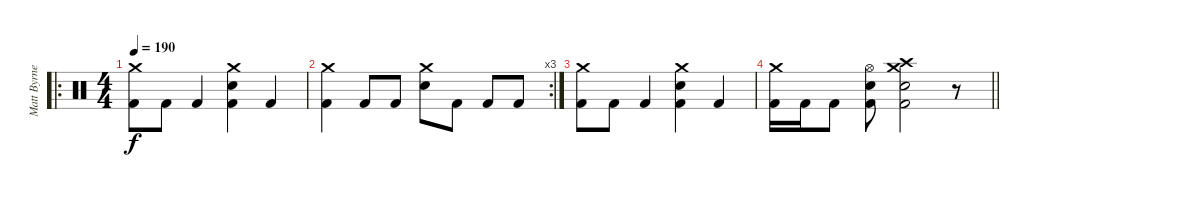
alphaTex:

\track ("Matt Byrne" "Matt Byrne") {instrument percussion}
\staff {score}
\articulation defaults
\ro
\ts (4 4)
\tempo 190
\clef neutral
\ks c
("Crash medium (hit)" "Kick (hit) 2").8{dy f} "Kick (hit) 2".8 "Kick (hit) 2".4 ("Crash medium (hit)" "Snare (hit) 2" "Kick (hit) 2").4 "Kick (hit) 2".4 |
\rc 3
("Crash medium (hit)" "Kick (hit) 2").4 "Kick (hit) 2".8 "Kick (hit) 2".8 ("Crash medium (hit)" "Snare (hit) 2").8 "Kick (hit) 2".8 "Kick (hit) 2".8 "Kick (hit) 2".8 |
("Crash medium (hit)" "Kick (hit) 2").8 "Kick (hit) 2".8 "Kick (hit) 2".4 ("Crash medium (hit)" "Snare (hit) 2" "Kick (hit) 2").4 "Kick (hit) 2".4 |
\barLineRight lightlight
("Crash medium (hit)" "Kick (hit) 2").16 "Kick (hit) 2".16 "Kick (hit) 2".8 ("Snare (hit) 2" "Hi-Hat (open)" "Kick (hit) 2").8 ("Crash high (hit)" "Kick (hit) 2" "Snare (hit) 2" "Crash medium (hit)").2 r.8
